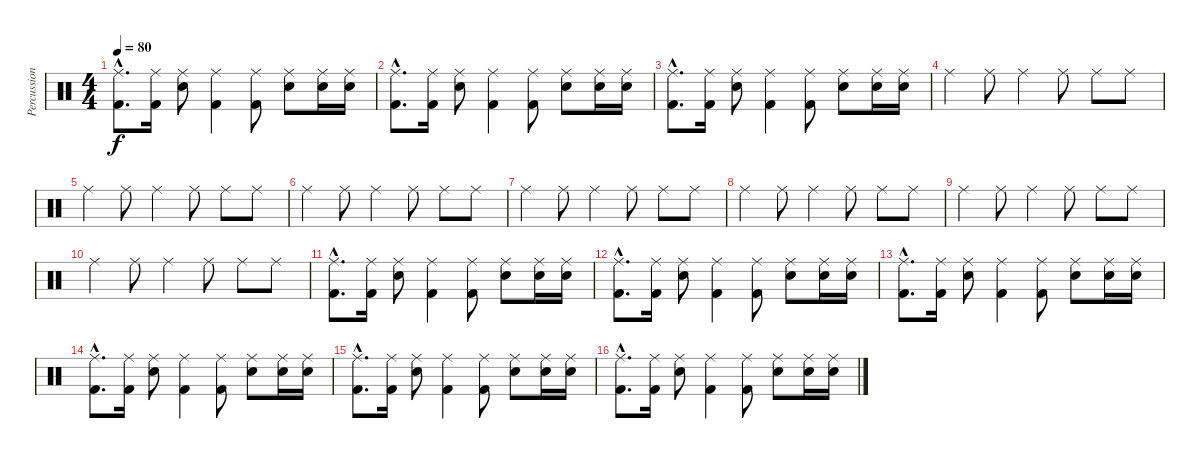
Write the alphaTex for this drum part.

\track ("Percussion" "Percussion") {instrument percussion}
\staff {score}
\articulation defaults
\ts (4 4)
\tempo 80
\clef neutral
\ks c
("Ride (middle)"{hac} "Kick (hit) 2"{hac}).8{d dy f} ("Ride (middle)" "Kick (hit) 2").16 ("Ride (middle)" "Electric Snare (hit)").8 ("Ride (middle)" "Kick (hit) 2").4 ("Ride (middle)" "Kick (hit) 2").8 ("Ride (middle)" "Electric Snare (hit)").8 ("Ride (middle)" "Electric Snare (hit)").16 ("Ride (middle)" "Electric Snare (hit)").16 |
("Ride (middle)"{hac} "Kick (hit) 2"{hac}).8{d} ("Ride (middle)" "Kick (hit) 2").16 ("Ride (middle)" "Electric Snare (hit)").8 ("Ride (middle)" "Kick (hit) 2").4 ("Ride (middle)" "Kick (hit) 2").8 ("Ride (middle)" "Electric Snare (hit)").8 ("Ride (middle)" "Electric Snare (hit)").16 ("Ride (middle)" "Electric Snare (hit)").16 |
("Ride (middle)"{hac} "Kick (hit) 2"{hac}).8{d} ("Ride (middle)" "Kick (hit) 2").16 ("Ride (middle)" "Electric Snare (hit)").8 ("Ride (middle)" "Kick (hit) 2").4 ("Ride (middle)" "Kick (hit) 2").8 ("Ride (middle)" "Electric Snare (hit)").8 ("Ride (middle)" "Electric Snare (hit)").16 ("Ride (middle)" "Electric Snare (hit)").16 |
"Ride (middle)".4 "Ride (middle)".8 "Ride (middle)".4 "Ride (middle)".8 "Ride (middle)".8 "Ride (middle)".8 |
"Ride (middle)".4 "Ride (middle)".8 "Ride (middle)".4 "Ride (middle)".8 "Ride (middle)".8 "Ride (middle)".8 |
"Ride (middle)".4 "Ride (middle)".8 "Ride (middle)".4 "Ride (middle)".8 "Ride (middle)".8 "Ride (middle)".8 |
"Ride (middle)".4 "Ride (middle)".8 "Ride (middle)".4 "Ride (middle)".8 "Ride (middle)".8 "Ride (middle)".8 |
"Ride (middle)".4 "Ride (middle)".8 "Ride (middle)".4 "Ride (middle)".8 "Ride (middle)".8 "Ride (middle)".8 |
"Ride (middle)".4 "Ride (middle)".8 "Ride (middle)".4 "Ride (middle)".8 "Ride (middle)".8 "Ride (middle)".8 |
"Ride (middle)".4 "Ride (middle)".8 "Ride (middle)".4 "Ride (middle)".8 "Ride (middle)".8 "Ride (middle)".8 |
("Ride (middle)"{hac} "Kick (hit) 2"{hac}).8{d} ("Ride (middle)" "Kick (hit) 2").16 ("Ride (middle)" "Electric Snare (hit)").8 ("Ride (middle)" "Kick (hit) 2").4 ("Ride (middle)" "Kick (hit) 2").8 ("Ride (middle)" "Electric Snare (hit)").8 ("Ride (middle)" "Electric Snare (hit)").16 ("Ride (middle)" "Electric Snare (hit)").16 |
("Ride (middle)"{hac} "Kick (hit) 2"{hac}).8{d} ("Ride (middle)" "Kick (hit) 2").16 ("Ride (middle)" "Electric Snare (hit)").8 ("Ride (middle)" "Kick (hit) 2").4 ("Ride (middle)" "Kick (hit) 2").8 ("Ride (middle)" "Electric Snare (hit)").8 ("Ride (middle)" "Electric Snare (hit)").16 ("Ride (middle)" "Electric Snare (hit)").16 |
("Ride (middle)"{hac} "Kick (hit) 2"{hac}).8{d} ("Ride (middle)" "Kick (hit) 2").16 ("Ride (middle)" "Electric Snare (hit)").8 ("Ride (middle)" "Kick (hit) 2").4 ("Ride (middle)" "Kick (hit) 2").8 ("Ride (middle)" "Electric Snare (hit)").8 ("Ride (middle)" "Electric Snare (hit)").16 ("Ride (middle)" "Electric Snare (hit)").16 |
("Ride (middle)"{hac} "Kick (hit) 2"{hac}).8{d} ("Ride (middle)" "Kick (hit) 2").16 ("Ride (middle)" "Electric Snare (hit)").8 ("Ride (middle)" "Kick (hit) 2").4 ("Ride (middle)" "Kick (hit) 2").8 ("Ride (middle)" "Electric Snare (hit)").8 ("Ride (middle)" "Electric Snare (hit)").16 ("Ride (middle)" "Electric Snare (hit)").16 |
("Ride (middle)"{hac} "Kick (hit) 2"{hac}).8{d} ("Ride (middle)" "Kick (hit) 2").16 ("Ride (middle)" "Electric Snare (hit)").8 ("Ride (middle)" "Kick (hit) 2").4 ("Ride (middle)" "Kick (hit) 2").8 ("Ride (middle)" "Electric Snare (hit)").8 ("Ride (middle)" "Electric Snare (hit)").16 ("Ride (middle)" "Electric Snare (hit)").16 |
("Ride (middle)"{hac} "Kick (hit) 2"{hac}).8{d} ("Ride (middle)" "Kick (hit) 2").16 ("Ride (middle)" "Electric Snare (hit)").8 ("Ride (middle)" "Kick (hit) 2").4 ("Ride (middle)" "Kick (hit) 2").8 ("Ride (middle)" "Electric Snare (hit)").8 ("Ride (middle)" "Electric Snare (hit)").16 ("Ride (middle)" "Electric Snare (hit)").16
